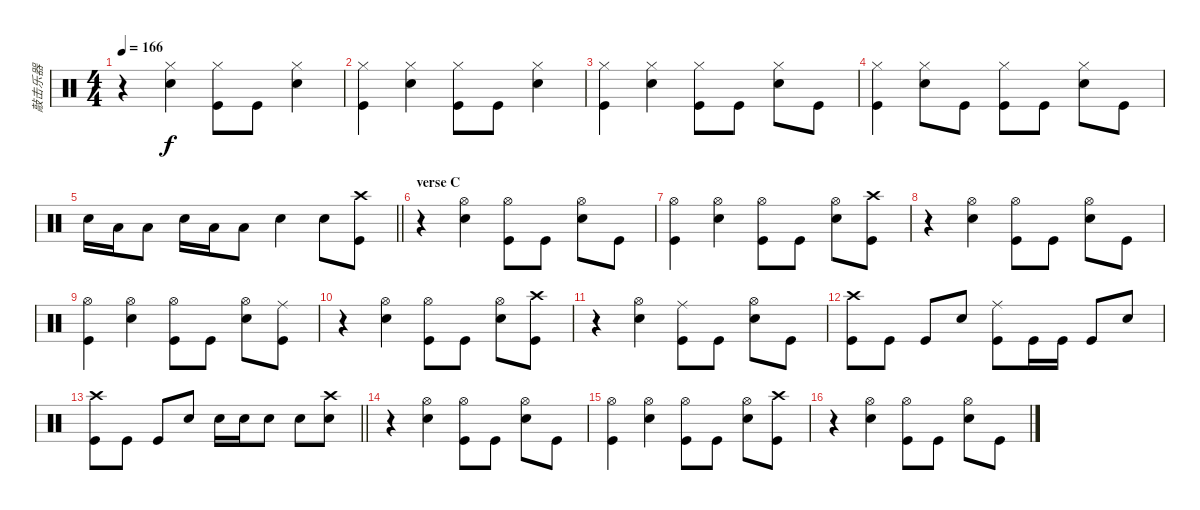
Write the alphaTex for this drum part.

\track ("敲击乐器" "敲击乐器") {instrument percussion}
\staff {score}
\articulation defaults
\ts (4 4)
\tempo 166
\clef neutral
\ks c
r.4{dy f} ("Hi-Hat (closed)" "Snare (hit) 2").4 ("Hi-Hat (closed)" "Kick (hit)").8 "Kick (hit)".8 ("Snare (hit) 2" "Hi-Hat (closed)").4 |
("Hi-Hat (closed)" "Kick (hit)").4 ("Hi-Hat (closed)" "Snare (hit) 2").4 ("Hi-Hat (closed)" "Kick (hit)").8 "Kick (hit)".8 ("Snare (hit) 2" "Hi-Hat (closed)").4 |
("Hi-Hat (closed)" "Kick (hit)").4 ("Hi-Hat (closed)" "Snare (hit) 2").4 ("Hi-Hat (closed)" "Kick (hit)").8 "Kick (hit)".8 ("Snare (hit) 2" "Hi-Hat (closed)").8 "Kick (hit)".8 |
("Kick (hit)" "Hi-Hat (closed)").4 ("Snare (hit) 2" "Hi-Hat (closed)").8 "Kick (hit)".8 ("Kick (hit)" "Hi-Hat (closed)").8 "Kick (hit)".8 ("Snare (hit) 2" "Hi-Hat (closed)").8 "Kick (hit)".8 |
\barLineRight lightlight "Snare (hit) 2".16 "Low Tom (hit)".16 "Low Tom (hit)".8 "Snare (hit) 2".16 "Low Tom (hit)".16 "Low Tom (hit)".8 "Snare (hit) 2".4 "Snare (hit) 2".8
("Kick (hit)" "Crash high (hit)").8 |
\section ("" "verse C")
r.4 ("Hi-Hat (open)" "Snare (hit) 2").4 ("Kick (hit)" "Hi-Hat (open)").8 "Kick (hit)".8 ("Snare (hit) 2" "Hi-Hat (open)").8 "Kick (hit)".8 |
("Kick (hit)" "Hi-Hat (open)").4 ("Hi-Hat (open)" "Snare (hit) 2").4 ("Kick (hit)" "Hi-Hat (open)").8 "Kick (hit)".8 ("Snare (hit) 2" "Hi-Hat (open)").8 ("Kick (hit)" "Crash high (hit)").8 |
r.4 ("Hi-Hat (open)" "Snare (hit) 2").4 ("Kick (hit)" "Hi-Hat (open)").8 "Kick (hit)".8 ("Snare (hit) 2" "Hi-Hat (open)").8 "Kick (hit)".8 |
("Kick (hit)" "Hi-Hat (open)").4 ("Hi-Hat (open)" "Snare (hit) 2").4 ("Kick (hit)" "Hi-Hat (open)").8 "Kick (hit)".8 ("Snare (hit) 2" "Hi-Hat (open)").8 ("Kick (hit)" "Ride (middle)").8 |
r.4 ("Hi-Hat (open)" "Snare (hit) 2").4 ("Kick (hit)" "Hi-Hat (open)").8 "Kick (hit)".8 ("Snare (hit) 2" "Hi-Hat (open)").8 ("Kick (hit)" "Crash high (hit)").8 |
r.4 ("Hi-Hat (open)" "Snare (hit) 2").4 ("Ride (middle)" "Kick (hit)").8 "Kick (hit)".8 ("Snare (hit) 2" "Hi-Hat (open)").8 "Kick (hit)".8 |
("Kick (hit)" "Crash high (hit)").8 "Kick (hit)".8 "Kick (hit)".8 "Snare (hit) 2".8 ("Kick (hit)" "Ride (middle)").8 "Kick (hit)".16 "Kick (hit)".16 "Kick (hit)".8 "Snare (hit) 2".8 |
\barLineRight lightlight
("Kick (hit)" "Crash high (hit)").8 "Kick (hit)".8 "Kick (hit)".8 "Snare (hit) 2".8 "Snare (hit) 2".16 "Snare (hit) 2".16 "Snare (hit) 2".8 "Snare (hit) 2".8 ("Snare (hit) 2" "Crash high (hit)").8 |
r.4 ("Hi-Hat (open)" "Snare (hit) 2").4 ("Kick (hit)" "Hi-Hat (open)").8 "Kick (hit)".8 ("Snare (hit) 2" "Hi-Hat (open)").8 "Kick (hit)".8 |
("Kick (hit)" "Hi-Hat (open)").4 ("Hi-Hat (open)" "Snare (hit) 2").4 ("Kick (hit)" "Hi-Hat (open)").8 "Kick (hit)".8 ("Snare (hit) 2" "Hi-Hat (open)").8 ("Kick (hit)" "Crash high (hit)").8 |
r.4 ("Hi-Hat (open)" "Snare (hit) 2").4 ("Kick (hit)" "Hi-Hat (open)").8 "Kick (hit)".8 ("Snare (hit) 2" "Hi-Hat (open)").8 "Kick (hit)".8
